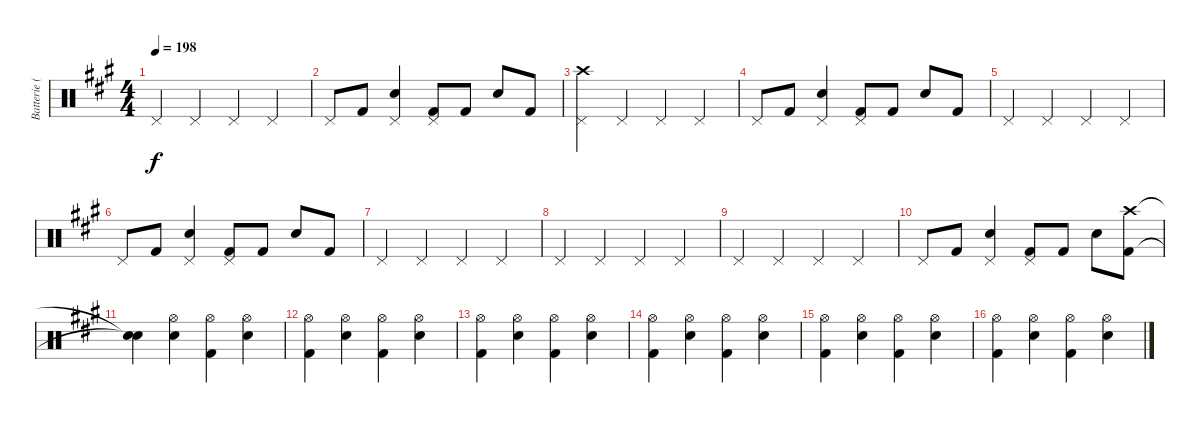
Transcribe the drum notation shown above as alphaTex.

\track ("Batterie (Phil Roud)" "Batterie (") {instrument percussion}
\staff {score}
\articulation defaults
\ts (4 4)
\tempo 198
\clef neutral
\ks a "Pedal Hi-Hat (hit)".4{dy f} "Pedal Hi-Hat (hit)".4 "Pedal Hi-Hat (hit)".4 "Pedal Hi-Hat (hit)".4
|
"Pedal Hi-Hat (hit)".8 "Kick (hit) 2".8 ("Snare (hit) 2" "Pedal Hi-Hat (hit)").4 ("Kick (hit) 2" "Pedal Hi-Hat (hit)").8 "Kick (hit) 2".8 "Snare (hit) 2".8 "Kick (hit) 2".8 |
("Crash high (hit)" "Pedal Hi-Hat (hit)").4 "Pedal Hi-Hat (hit)".4 "Pedal Hi-Hat (hit)".4 "Pedal Hi-Hat (hit)".4 |
"Pedal Hi-Hat (hit)".8 "Kick (hit) 2".8 ("Snare (hit) 2" "Pedal Hi-Hat (hit)").4 ("Kick (hit) 2" "Pedal Hi-Hat (hit)").8 "Kick (hit) 2".8 "Snare (hit) 2".8 "Kick (hit) 2".8 |
"Pedal Hi-Hat (hit)".4 "Pedal Hi-Hat (hit)".4 "Pedal Hi-Hat (hit)".4 "Pedal Hi-Hat (hit)".4 |
"Pedal Hi-Hat (hit)".8 "Kick (hit) 2".8 ("Snare (hit) 2" "Pedal Hi-Hat (hit)").4 ("Kick (hit) 2" "Pedal Hi-Hat (hit)").8 "Kick (hit) 2".8 "Snare (hit) 2".8 "Kick (hit) 2".8 |
"Pedal Hi-Hat (hit)".4 "Pedal Hi-Hat (hit)".4 "Pedal Hi-Hat (hit)".4 "Pedal Hi-Hat (hit)".4 |
"Pedal Hi-Hat (hit)".4 "Pedal Hi-Hat (hit)".4 "Pedal Hi-Hat (hit)".4 "Pedal Hi-Hat (hit)".4 |
"Pedal Hi-Hat (hit)".4 "Pedal Hi-Hat (hit)".4 "Pedal Hi-Hat (hit)".4 "Pedal Hi-Hat (hit)".4 |
"Pedal Hi-Hat (hit)".8 "Kick (hit) 2".8 ("Snare (hit) 2" "Pedal Hi-Hat (hit)").4 ("Kick (hit) 2" "Pedal Hi-Hat (hit)").8 "Kick (hit) 2".8 "Snare (hit) 2".8 ("Crash high (hit)" "Kick (hit) 2").8 |
("Snare (hit)"{t} "Snare (hit)"{t}).4 ("Hi-Hat (open)" "Snare (hit) 2").4 ("Hi-Hat (open)" "Kick (hit) 2").4 ("Hi-Hat (open)" "Snare (hit) 2").4 |
("Hi-Hat (open)" "Kick (hit) 2").4 ("Hi-Hat (open)" "Snare (hit) 2").4 ("Hi-Hat (open)" "Kick (hit) 2").4 ("Hi-Hat (open)" "Snare (hit) 2").4 |
("Hi-Hat (open)" "Kick (hit) 2").4 ("Hi-Hat (open)" "Snare (hit) 2").4 ("Hi-Hat (open)" "Kick (hit) 2").4 ("Hi-Hat (open)" "Snare (hit) 2").4 |
("Hi-Hat (open)" "Kick (hit) 2").4 ("Hi-Hat (open)" "Snare (hit) 2").4 ("Hi-Hat (open)" "Kick (hit) 2").4 ("Hi-Hat (open)" "Snare (hit) 2").4 |
("Hi-Hat (open)" "Kick (hit) 2").4 ("Hi-Hat (open)" "Snare (hit) 2").4 ("Hi-Hat (open)" "Kick (hit) 2").4 ("Hi-Hat (open)" "Snare (hit) 2").4 |
("Hi-Hat (open)" "Kick (hit) 2").4 ("Hi-Hat (open)" "Snare (hit) 2").4 ("Hi-Hat (open)" "Kick (hit) 2").4 ("Hi-Hat (open)" "Snare (hit) 2").4
